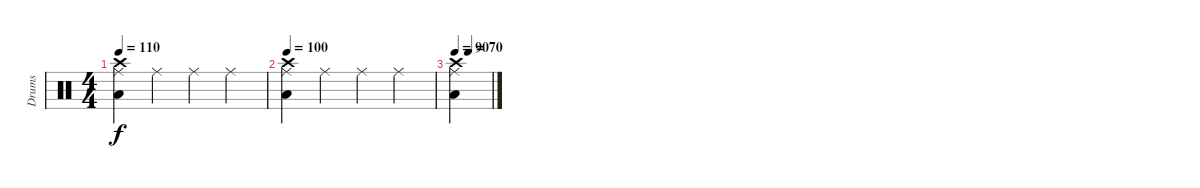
\track ("Drums" "Drums") {instrument percussion}
\staff {score}
\articulation defaults
\ts (4 4)
\tempo 110
\clef neutral
\ks c
("Crash high (hit)" "Low Floor Tom (hit)" "Ride (middle)").4{dy f} "Ride (middle)".4 "Ride (middle)".4 "Ride (middle)".4 |
\tempo 100
("Crash high (hit)" "Low Floor Tom (hit)" "Ride (middle)").4 "Ride (middle)".4 "Ride (middle)".4 "Ride (middle)".4 |
\tempo 90
\tempo (70 0.375)
("Crash high (hit)" "Low Floor Tom (hit)" "Ride (middle)").4
